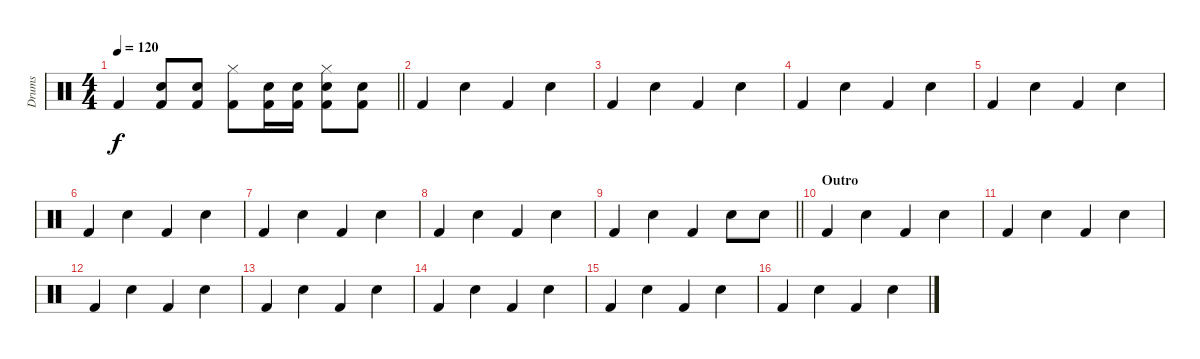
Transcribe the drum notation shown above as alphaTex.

\track ("Drums" "Drums") {instrument percussion}
\staff {score}
\articulation defaults
\ts (4 4)
\tempo 120
\clef neutral
\barLineRight lightlight
\ks c "Kick (hit) 2".4{dy f}
("Electric Snare (hit)" "Kick (hit) 2").8 ("Electric Snare (hit)" "Kick (hit) 2").8 ("Kick (hit) 2" "Hi-Hat (closed)").8 ("Electric Snare (hit)" "Kick (hit) 2").16 ("Electric Snare (hit)" "Kick (hit) 2").16 ("Electric Snare (hit)" "Kick (hit) 2" "Hi-Hat (closed)").8 ("Electric Snare (hit)" "Kick (hit) 2").8 |
"Kick (hit) 2".4 "Electric Snare (hit)".4 "Kick (hit) 2".4 "Electric Snare (hit)".4 |
"Kick (hit) 2".4 "Electric Snare (hit)".4 "Kick (hit) 2".4 "Electric Snare (hit)".4 |
"Kick (hit) 2".4 "Electric Snare (hit)".4 "Kick (hit) 2".4 "Electric Snare (hit)".4 |
"Kick (hit) 2".4 "Electric Snare (hit)".4 "Kick (hit) 2".4 "Electric Snare (hit)".4 |
"Kick (hit) 2".4 "Electric Snare (hit)".4 "Kick (hit) 2".4 "Electric Snare (hit)".4 |
"Kick (hit) 2".4 "Electric Snare (hit)".4 "Kick (hit) 2".4 "Electric Snare (hit)".4 |
"Kick (hit) 2".4 "Electric Snare (hit)".4 "Kick (hit) 2".4 "Electric Snare (hit)".4 |
\barLineRight lightlight "Kick (hit) 2".4 "Electric Snare (hit)".4 "Kick (hit) 2".4 "Electric Snare (hit)".8 "Electric Snare (hit)".8
|
\section ("" "Outro")
"Kick (hit) 2".4 "Electric Snare (hit)".4 "Kick (hit) 2".4 "Electric Snare (hit)".4 |
"Kick (hit) 2".4 "Electric Snare (hit)".4 "Kick (hit) 2".4 "Electric Snare (hit)".4 |
"Kick (hit) 2".4 "Electric Snare (hit)".4 "Kick (hit) 2".4 "Electric Snare (hit)".4 |
"Kick (hit) 2".4 "Electric Snare (hit)".4 "Kick (hit) 2".4 "Electric Snare (hit)".4 |
"Kick (hit) 2".4 "Electric Snare (hit)".4 "Kick (hit) 2".4 "Electric Snare (hit)".4 |
"Kick (hit) 2".4 "Electric Snare (hit)".4 "Kick (hit) 2".4 "Electric Snare (hit)".4 |
"Kick (hit) 2".4 "Electric Snare (hit)".4 "Kick (hit) 2".4 "Electric Snare (hit)".4
